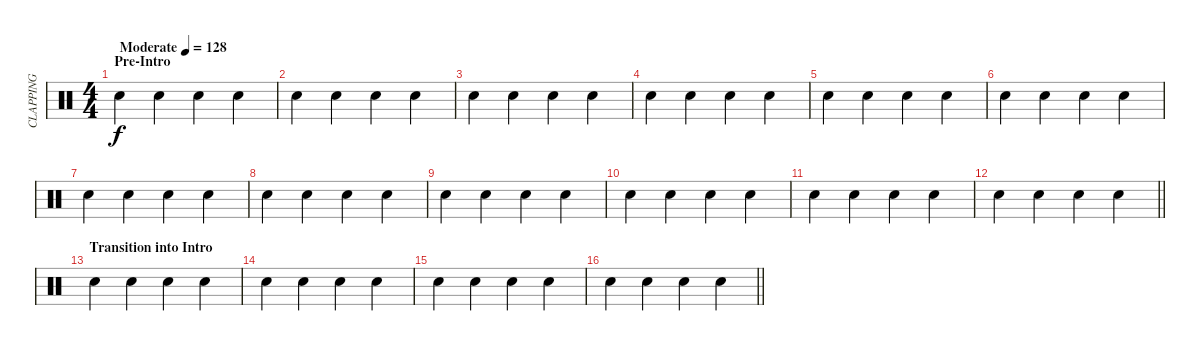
\track ("CLAPPING" "CLAPPING") {instrument percussion}
\staff {score}
\articulation defaults
\ts (4 4)
\section ("" "Pre-Intro")
\tempo (128 "Moderate")
\clef neutral
\ks c "Hand Clap (hit)".4{dy f} "Hand Clap (hit)".4 "Hand Clap (hit)".4 "Hand Clap (hit)".4
|
"Hand Clap (hit)".4 "Hand Clap (hit)".4 "Hand Clap (hit)".4 "Hand Clap (hit)".4 |
"Hand Clap (hit)".4 "Hand Clap (hit)".4 "Hand Clap (hit)".4 "Hand Clap (hit)".4 |
"Hand Clap (hit)".4 "Hand Clap (hit)".4 "Hand Clap (hit)".4 "Hand Clap (hit)".4 |
"Hand Clap (hit)".4 "Hand Clap (hit)".4 "Hand Clap (hit)".4 "Hand Clap (hit)".4 |
"Hand Clap (hit)".4 "Hand Clap (hit)".4 "Hand Clap (hit)".4 "Hand Clap (hit)".4 |
"Hand Clap (hit)".4 "Hand Clap (hit)".4 "Hand Clap (hit)".4 "Hand Clap (hit)".4 |
"Hand Clap (hit)".4 "Hand Clap (hit)".4 "Hand Clap (hit)".4 "Hand Clap (hit)".4 |
"Hand Clap (hit)".4 "Hand Clap (hit)".4 "Hand Clap (hit)".4 "Hand Clap (hit)".4 |
"Hand Clap (hit)".4 "Hand Clap (hit)".4 "Hand Clap (hit)".4 "Hand Clap (hit)".4 |
"Hand Clap (hit)".4 "Hand Clap (hit)".4 "Hand Clap (hit)".4 "Hand Clap (hit)".4 |
\barLineRight lightlight "Hand Clap (hit)".4 "Hand Clap (hit)".4 "Hand Clap (hit)".4 "Hand Clap (hit)".4
|
\section ("" "Transition into Intro")
"Hand Clap (hit)".4 "Hand Clap (hit)".4 "Hand Clap (hit)".4 "Hand Clap (hit)".4 |
"Hand Clap (hit)".4 "Hand Clap (hit)".4 "Hand Clap (hit)".4 "Hand Clap (hit)".4 |
"Hand Clap (hit)".4 "Hand Clap (hit)".4 "Hand Clap (hit)".4 "Hand Clap (hit)".4 |
\barLineRight lightlight "Hand Clap (hit)".4 "Hand Clap (hit)".4 "Hand Clap (hit)".4 "Hand Clap (hit)".4
